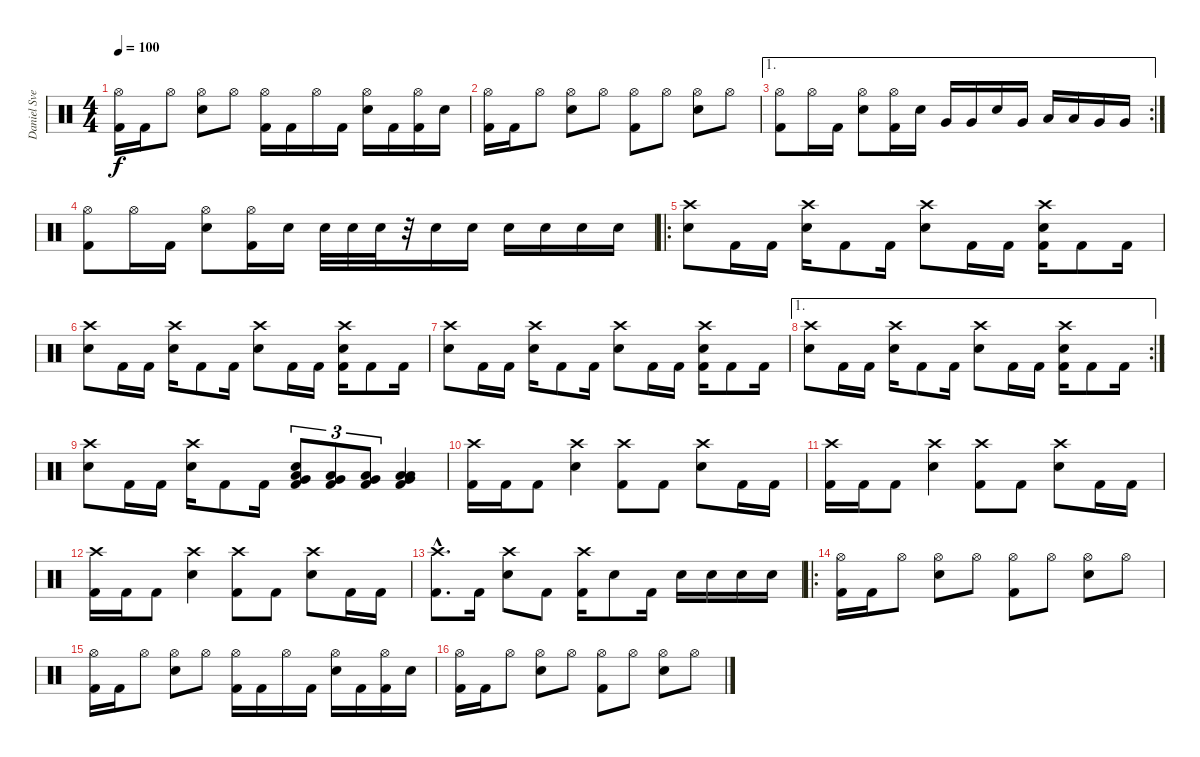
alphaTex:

\track ("Daniel Svensson" "Daniel Sve") {instrument percussion}
\staff {score}
\articulation defaults
\ts (4 4)
\tempo 100
\clef neutral
\ks c
("Hi-Hat (open)" "Kick (hit) 2").16{dy f} "Kick (hit) 2".16 "Hi-Hat (open)".8 ("Hi-Hat (open)" "Snare (hit) 2").8 "Hi-Hat (open)".8 ("Hi-Hat (open)" "Kick (hit) 2").16 "Kick (hit) 2".16 "Hi-Hat (open)".16 "Kick (hit) 2".16 ("Hi-Hat (open)" "Snare (hit) 2").16 "Kick (hit) 2".16 ("Hi-Hat (open)" "Kick (hit) 2").16 "Snare (hit) 2".16 |
("Hi-Hat (open)" "Kick (hit) 2").16 "Kick (hit) 2".16 "Hi-Hat (open)".8 ("Hi-Hat (open)" "Snare (hit) 2").8 "Hi-Hat (open)".8 ("Hi-Hat (open)" "Kick (hit) 2").8 "Hi-Hat (open)".8 ("Hi-Hat (open)" "Snare (hit) 2").8 "Hi-Hat (open)".8 |
\ae 1
\rc 2
("Hi-Hat (open)" "Kick (hit) 2").8 "Hi-Hat (open)".16 "Kick (hit) 2".16 ("Hi-Hat (open)" "Snare (hit) 2").8 ("Hi-Hat (open)" "Kick (hit) 2").16 "Snare (hit) 2".16 "Very Low Tom (hit)".16 "Very Low Tom (hit)".16 "Snare (hit) 2".16 "Very Low Tom (hit)".16 "Low Floor Tom (hit)".16 "Low Floor Tom (hit)".16 "Very Low Tom (hit)".16 "Very Low Tom (hit)".16 |
("Hi-Hat (open)" "Kick (hit) 2").8 "Hi-Hat (open)".16 "Kick (hit) 2".16 ("Hi-Hat (open)" "Snare (hit) 2").8 ("Hi-Hat (open)" "Kick (hit) 2").16 "Snare (hit) 2".16 "Snare (hit) 2".32 "Snare (hit) 2".32 "Snare (hit) 2".32 r.32 "Snare (hit) 2".16 "Snare (hit) 2".16 "Snare (hit) 2".16 "Snare (hit) 2".16 "Snare (hit) 2".16 "Snare (hit) 2".16 |
\ro
("Crash high (hit)" "Snare (hit) 2").8 "Kick (hit) 2".16 "Kick (hit) 2".16 ("Crash high (hit)" "Snare (hit) 2").16 "Kick (hit) 2".8 "Kick (hit) 2".16 ("Crash high (hit)" "Snare (hit) 2").8 "Kick (hit) 2".16 "Kick (hit) 2".16 ("Crash high (hit)" "Snare (hit) 2" "Kick (hit) 2").16 "Kick (hit) 2".8 "Kick (hit) 2".16 |
("Crash high (hit)" "Snare (hit) 2").8 "Kick (hit) 2".16 "Kick (hit) 2".16 ("Crash high (hit)" "Snare (hit) 2").16 "Kick (hit) 2".8 "Kick (hit) 2".16 ("Crash high (hit)" "Snare (hit) 2").8 "Kick (hit) 2".16 "Kick (hit) 2".16 ("Crash high (hit)" "Snare (hit) 2" "Kick (hit) 2").16 "Kick (hit) 2".8 "Kick (hit) 2".16 |
("Crash high (hit)" "Snare (hit) 2").8 "Kick (hit) 2".16 "Kick (hit) 2".16 ("Crash high (hit)" "Snare (hit) 2").16 "Kick (hit) 2".8 "Kick (hit) 2".16 ("Crash high (hit)" "Snare (hit) 2").8 "Kick (hit) 2".16 "Kick (hit) 2".16 ("Crash high (hit)" "Snare (hit) 2" "Kick (hit) 2").16 "Kick (hit) 2".8 "Kick (hit) 2".16 |
\ae 1
\rc 2
("Crash high (hit)" "Snare (hit) 2").8 "Kick (hit) 2".16 "Kick (hit) 2".16 ("Crash high (hit)" "Snare (hit) 2").16 "Kick (hit) 2".8 "Kick (hit) 2".16 ("Crash high (hit)" "Snare (hit) 2").8 "Kick (hit) 2".16 "Kick (hit) 2".16 ("Crash high (hit)" "Snare (hit) 2" "Kick (hit) 2").16 "Kick (hit) 2".8 "Kick (hit) 2".16 |
("Crash high (hit)" "Snare (hit) 2").8 "Kick (hit) 2".16 "Kick (hit) 2".16 ("Crash high (hit)" "Snare (hit) 2").16 "Kick (hit) 2".8 "Kick (hit) 2".16 ("Low Floor Tom (hit)" "Very Low Tom (hit)" "Snare (hit) 2" "Kick (hit) 2").8{tu (3 2)} ("Low Floor Tom (hit)" "Very Low Tom (hit)" "Kick (hit) 2").8{tu (3 2)} ("Low Floor Tom (hit)" "Very Low Tom (hit)" "Kick (hit) 2").8{tu (3 2)} ("Low Floor Tom (hit)" "Very Low Tom (hit)" "Low Tom (hit)" "Kick (hit) 2").4 |
("Crash high (hit)" "Kick (hit) 2").16 "Kick (hit) 2".16 "Kick (hit) 2".8 ("Crash high (hit)" "Snare (hit) 2").4 ("Crash high (hit)" "Kick (hit) 2").8 "Kick (hit) 2".8 ("Crash high (hit)" "Snare (hit) 2").8 "Kick (hit) 2".16 "Kick (hit) 2".16 |
("Crash high (hit)" "Kick (hit) 2").16 "Kick (hit) 2".16 "Kick (hit) 2".8 ("Crash high (hit)" "Snare (hit) 2").4 ("Crash high (hit)" "Kick (hit) 2").8 "Kick (hit) 2".8 ("Crash high (hit)" "Snare (hit) 2").8 "Kick (hit) 2".16 "Kick (hit) 2".16 |
("Crash high (hit)" "Kick (hit) 2").16 "Kick (hit) 2".16 "Kick (hit) 2".8 ("Crash high (hit)" "Snare (hit) 2").4 ("Crash high (hit)" "Kick (hit) 2").8 "Kick (hit) 2".8 ("Crash high (hit)" "Snare (hit) 2").8 "Kick (hit) 2".16 "Kick (hit) 2".16 |
("Crash high (hit)"{hac} "Kick (hit) 2"{hac}).8{d} "Kick (hit) 2".16 ("Crash high (hit)" "Snare (hit) 2").8 "Kick (hit) 2".8 ("Crash high (hit)" "Kick (hit) 2").16 "Snare (hit) 2".8 "Kick (hit) 2".16 "Snare (hit) 2".16 "Snare (hit) 2".16 "Snare (hit) 2".16 "Snare (hit) 2".16 |
\ro
("Hi-Hat (open)" "Kick (hit) 2").16 "Kick (hit) 2".16 "Hi-Hat (open)".8 ("Hi-Hat (open)" "Snare (hit) 2").8 "Hi-Hat (open)".8 ("Hi-Hat (open)" "Kick (hit) 2").8 "Hi-Hat (open)".8 ("Hi-Hat (open)" "Snare (hit) 2").8 "Hi-Hat (open)".8 |
("Hi-Hat (open)" "Kick (hit) 2").16 "Kick (hit) 2".16 "Hi-Hat (open)".8 ("Hi-Hat (open)" "Snare (hit) 2").8 "Hi-Hat (open)".8 ("Hi-Hat (open)" "Kick (hit) 2").16 "Kick (hit) 2".16 "Hi-Hat (open)".16 "Kick (hit) 2".16 ("Hi-Hat (open)" "Snare (hit) 2").16 "Kick (hit) 2".16 ("Hi-Hat (open)" "Kick (hit) 2").16 "Snare (hit) 2".16 |
("Hi-Hat (open)" "Kick (hit) 2").16 "Kick (hit) 2".16 "Hi-Hat (open)".8 ("Hi-Hat (open)" "Snare (hit) 2").8 "Hi-Hat (open)".8 ("Hi-Hat (open)" "Kick (hit) 2").8 "Hi-Hat (open)".8 ("Hi-Hat (open)" "Snare (hit) 2").8 "Hi-Hat (open)".8
